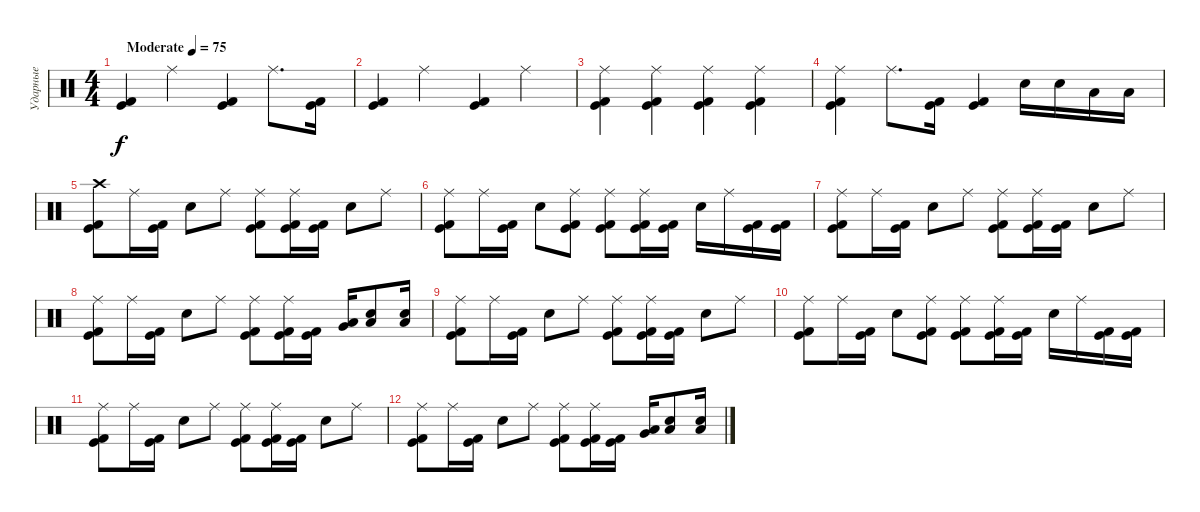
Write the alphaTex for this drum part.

\track ("Ударные" "Ударные") {instrument percussion}
\staff {score}
\articulation defaults
\ts (4 4)
\tempo (75 "Moderate")
\clef neutral
\ks c
("Kick (hit) 2" "Kick (hit)").4{dy f} "Ride (middle)".4 ("Kick (hit) 2" "Kick (hit)").4 "Ride (middle)".8{d} ("Kick (hit) 2" "Kick (hit)").16 |
("Kick (hit) 2" "Kick (hit)").4 "Ride (middle)".4 ("Kick (hit) 2" "Kick (hit)").4 "Ride (middle)".4 |
("Ride (middle)" "Kick (hit) 2" "Kick (hit)").4 ("Ride (middle)" "Kick (hit) 2" "Kick (hit)").4 ("Ride (middle)" "Kick (hit) 2" "Kick (hit)").4 ("Ride (middle)" "Kick (hit) 2" "Kick (hit)").4 |
("Ride (middle)" "Kick (hit) 2" "Kick (hit)").4 "Ride (middle)".8{d} ("Kick (hit) 2" "Kick (hit)").16 ("Kick (hit) 2" "Kick (hit)").4 "Electric Snare (hit)".16 "Electric Snare (hit)".16 "Low Tom (hit)".16 "Low Tom (hit)".16 |
("Crash high (hit)" "Kick (hit) 2" "Kick (hit)").8 "Ride (middle)".16 ("Kick (hit) 2" "Kick (hit)").16 "Electric Snare (hit)".8 "Ride (middle)".8 ("Ride (middle)" "Kick (hit) 2" "Kick (hit)").8 ("Ride (middle)" "Kick (hit) 2" "Kick (hit)").16 ("Kick (hit) 2" "Kick (hit)").16 "Electric Snare (hit)".8 "Ride (middle)".8 |
("Ride (middle)" "Kick (hit) 2" "Kick (hit)").8 "Ride (middle)".16 ("Kick (hit) 2" "Kick (hit)").16 "Electric Snare (hit)".8 ("Ride (middle)" "Kick (hit) 2" "Kick (hit)").8 ("Ride (middle)" "Kick (hit) 2" "Kick (hit)").8 ("Ride (middle)" "Kick (hit) 2" "Kick (hit)").16 ("Kick (hit) 2" "Kick (hit)").16 "Electric Snare (hit)".16 "Ride (middle)".16 ("Kick (hit) 2" "Kick (hit)").16 ("Kick (hit) 2" "Kick (hit)").16 |
("Ride (middle)" "Kick (hit) 2" "Kick (hit)").8 "Ride (middle)".16 ("Kick (hit) 2" "Kick (hit)").16 "Electric Snare (hit)".8 "Ride (middle)".8 ("Ride (middle)" "Kick (hit) 2" "Kick (hit)").8 ("Ride (middle)" "Kick (hit) 2" "Kick (hit)").16 ("Kick (hit) 2" "Kick (hit)").16 "Electric Snare (hit)".8 "Ride (middle)".8 |
("Ride (middle)" "Kick (hit) 2" "Kick (hit)").8 "Ride (middle)".16 ("Kick (hit) 2" "Kick (hit)").16 "Electric Snare (hit)".8 "Ride (middle)".8 ("Ride (middle)" "Kick (hit) 2" "Kick (hit)").8 ("Ride (middle)" "Kick (hit) 2" "Kick (hit)").16 ("Kick (hit) 2" "Kick (hit)").16 ("Low Tom (hit)" "Very Low Tom (hit)").16 ("Low Tom (hit)" "Electric Snare (hit)").8 ("Low Tom (hit)" "Electric Snare (hit)").16 |
("Ride (middle)" "Kick (hit) 2" "Kick (hit)").8 "Ride (middle)".16 ("Kick (hit) 2" "Kick (hit)").16 "Electric Snare (hit)".8 "Ride (middle)".8 ("Ride (middle)" "Kick (hit) 2" "Kick (hit)").8 ("Ride (middle)" "Kick (hit) 2" "Kick (hit)").16 ("Kick (hit) 2" "Kick (hit)").16 "Electric Snare (hit)".8 "Ride (middle)".8 |
("Ride (middle)" "Kick (hit) 2" "Kick (hit)").8 "Ride (middle)".16 ("Kick (hit) 2" "Kick (hit)").16 "Electric Snare (hit)".8 ("Ride (middle)" "Kick (hit) 2" "Kick (hit)").8 ("Ride (middle)" "Kick (hit) 2" "Kick (hit)").8 ("Ride (middle)" "Kick (hit) 2" "Kick (hit)").16 ("Kick (hit) 2" "Kick (hit)").16 "Electric Snare (hit)".16 "Ride (middle)".16 ("Kick (hit) 2" "Kick (hit)").16 ("Kick (hit) 2" "Kick (hit)").16 |
("Ride (middle)" "Kick (hit) 2" "Kick (hit)").8 "Ride (middle)".16 ("Kick (hit) 2" "Kick (hit)").16 "Electric Snare (hit)".8 "Ride (middle)".8 ("Ride (middle)" "Kick (hit) 2" "Kick (hit)").8 ("Ride (middle)" "Kick (hit) 2" "Kick (hit)").16 ("Kick (hit) 2" "Kick (hit)").16 "Electric Snare (hit)".8 "Ride (middle)".8 |
("Ride (middle)" "Kick (hit) 2" "Kick (hit)").8 "Ride (middle)".16 ("Kick (hit) 2" "Kick (hit)").16 "Electric Snare (hit)".8 "Ride (middle)".8 ("Ride (middle)" "Kick (hit) 2" "Kick (hit)").8 ("Ride (middle)" "Kick (hit) 2" "Kick (hit)").16 ("Kick (hit) 2" "Kick (hit)").16 ("Low Tom (hit)" "Very Low Tom (hit)").16 ("Low Tom (hit)" "Electric Snare (hit)").8 ("Low Tom (hit)" "Electric Snare (hit)").16
